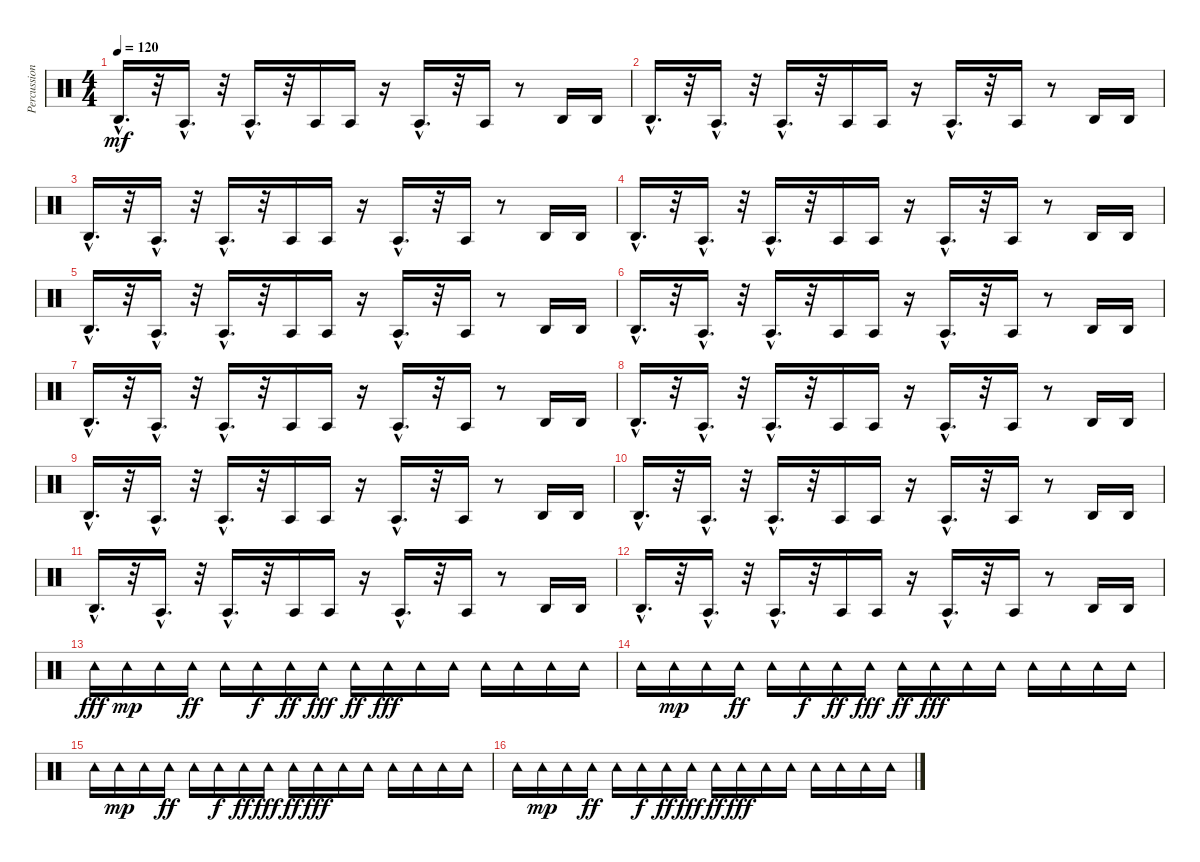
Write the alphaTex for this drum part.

\track ("Percussion" "Percussion") {instrument percussion}
\staff {score}
\articulation defaults
\ts (4 4)
\tempo 120
\clef neutral
\ks c "Agogo high (hit)"{hac}.16{d dy mf}
r.32 "Agogo tow (hit)"{hac}.16{d} r.32 "Agogo tow (hit)"{hac}.16{d} r.32 "Agogo tow (hit)".16 "Agogo tow (hit)".16 r.16 "Agogo tow (hit)"{hac}.16{d} r.32 "Agogo tow (hit)".16 r.8 "Agogo high (hit)".16 "Agogo high (hit)".16 |
"Agogo high (hit)"{hac}.16{d} r.32 "Agogo tow (hit)"{hac}.16{d} r.32 "Agogo tow (hit)"{hac}.16{d} r.32 "Agogo tow (hit)".16 "Agogo tow (hit)".16 r.16 "Agogo tow (hit)"{hac}.16{d} r.32 "Agogo tow (hit)".16 r.8 "Agogo high (hit)".16 "Agogo high (hit)".16 |
"Agogo high (hit)"{hac}.16{d} r.32 "Agogo tow (hit)"{hac}.16{d} r.32 "Agogo tow (hit)"{hac}.16{d} r.32 "Agogo tow (hit)".16 "Agogo tow (hit)".16 r.16 "Agogo tow (hit)"{hac}.16{d} r.32 "Agogo tow (hit)".16 r.8 "Agogo high (hit)".16 "Agogo high (hit)".16 |
"Agogo high (hit)"{hac}.16{d} r.32 "Agogo tow (hit)"{hac}.16{d} r.32 "Agogo tow (hit)"{hac}.16{d} r.32 "Agogo tow (hit)".16 "Agogo tow (hit)".16 r.16 "Agogo tow (hit)"{hac}.16{d} r.32 "Agogo tow (hit)".16 r.8 "Agogo high (hit)".16 "Agogo high (hit)".16 |
"Agogo high (hit)"{hac}.16{d} r.32 "Agogo tow (hit)"{hac}.16{d} r.32 "Agogo tow (hit)"{hac}.16{d} r.32 "Agogo tow (hit)".16 "Agogo tow (hit)".16 r.16 "Agogo tow (hit)"{hac}.16{d} r.32 "Agogo tow (hit)".16 r.8 "Agogo high (hit)".16 "Agogo high (hit)".16 |
"Agogo high (hit)"{hac}.16{d} r.32 "Agogo tow (hit)"{hac}.16{d} r.32 "Agogo tow (hit)"{hac}.16{d} r.32 "Agogo tow (hit)".16 "Agogo tow (hit)".16 r.16 "Agogo tow (hit)"{hac}.16{d} r.32 "Agogo tow (hit)".16 r.8 "Agogo high (hit)".16 "Agogo high (hit)".16 |
"Agogo high (hit)"{hac}.16{d} r.32 "Agogo tow (hit)"{hac}.16{d} r.32 "Agogo tow (hit)"{hac}.16{d} r.32 "Agogo tow (hit)".16 "Agogo tow (hit)".16 r.16 "Agogo tow (hit)"{hac}.16{d} r.32 "Agogo tow (hit)".16 r.8 "Agogo high (hit)".16 "Agogo high (hit)".16 |
"Agogo high (hit)"{hac}.16{d} r.32 "Agogo tow (hit)"{hac}.16{d} r.32 "Agogo tow (hit)"{hac}.16{d} r.32 "Agogo tow (hit)".16 "Agogo tow (hit)".16 r.16 "Agogo tow (hit)"{hac}.16{d} r.32 "Agogo tow (hit)".16 r.8 "Agogo high (hit)".16 "Agogo high (hit)".16 |
"Agogo high (hit)"{hac}.16{d} r.32 "Agogo tow (hit)"{hac}.16{d} r.32 "Agogo tow (hit)"{hac}.16{d} r.32 "Agogo tow (hit)".16 "Agogo tow (hit)".16 r.16 "Agogo tow (hit)"{hac}.16{d} r.32 "Agogo tow (hit)".16 r.8 "Agogo high (hit)".16 "Agogo high (hit)".16 |
"Agogo high (hit)"{hac}.16{d} r.32 "Agogo tow (hit)"{hac}.16{d} r.32 "Agogo tow (hit)"{hac}.16{d} r.32 "Agogo tow (hit)".16 "Agogo tow (hit)".16 r.16 "Agogo tow (hit)"{hac}.16{d} r.32 "Agogo tow (hit)".16 r.8 "Agogo high (hit)".16 "Agogo high (hit)".16 |
"Agogo high (hit)"{hac}.16{d} r.32 "Agogo tow (hit)"{hac}.16{d} r.32 "Agogo tow (hit)"{hac}.16{d} r.32 "Agogo tow (hit)".16 "Agogo tow (hit)".16 r.16 "Agogo tow (hit)"{hac}.16{d} r.32 "Agogo tow (hit)".16 r.8 "Agogo high (hit)".16 "Agogo high (hit)".16 |
"Agogo high (hit)"{hac}.16{d} r.32 "Agogo tow (hit)"{hac}.16{d} r.32 "Agogo tow (hit)"{hac}.16{d} r.32 "Agogo tow (hit)".16 "Agogo tow (hit)".16 r.16 "Agogo tow (hit)"{hac}.16{d} r.32 "Agogo tow (hit)".16 r.8 "Agogo high (hit)".16 "Agogo high (hit)".16 |
"Tambourine (hit)".16{dy fff} "Tambourine (hit)".16{dy mp} "Tambourine (hit)".16 "Tambourine (hit)".16{dy ff} "Tambourine (hit)".16 "Tambourine (hit)".16{dy f} "Tambourine (hit)".16{dy ff} "Tambourine (hit)".16{dy fff} "Tambourine (hit)".16{dy ff} "Tambourine (hit)".16{dy fff} "Tambourine (hit)".16 "Tambourine (hit)".16 "Tambourine (hit)".16 "Tambourine (hit)".16 "Tambourine (hit)".16 "Tambourine (hit)".16 |
"Tambourine (hit)".16 "Tambourine (hit)".16{dy mp} "Tambourine (hit)".16 "Tambourine (hit)".16{dy ff} "Tambourine (hit)".16 "Tambourine (hit)".16{dy f} "Tambourine (hit)".16{dy ff} "Tambourine (hit)".16{dy fff} "Tambourine (hit)".16{dy ff} "Tambourine (hit)".16{dy fff} "Tambourine (hit)".16 "Tambourine (hit)".16 "Tambourine (hit)".16 "Tambourine (hit)".16 "Tambourine (hit)".16 "Tambourine (hit)".16 |
"Tambourine (hit)".16 "Tambourine (hit)".16{dy mp} "Tambourine (hit)".16 "Tambourine (hit)".16{dy ff} "Tambourine (hit)".16 "Tambourine (hit)".16{dy f} "Tambourine (hit)".16{dy ff} "Tambourine (hit)".16{dy fff} "Tambourine (hit)".16{dy ff} "Tambourine (hit)".16{dy fff} "Tambourine (hit)".16 "Tambourine (hit)".16 "Tambourine (hit)".16 "Tambourine (hit)".16 "Tambourine (hit)".16 "Tambourine (hit)".16 |
"Tambourine (hit)".16 "Tambourine (hit)".16{dy mp} "Tambourine (hit)".16 "Tambourine (hit)".16{dy ff} "Tambourine (hit)".16 "Tambourine (hit)".16{dy f} "Tambourine (hit)".16{dy ff} "Tambourine (hit)".16{dy fff} "Tambourine (hit)".16{dy ff} "Tambourine (hit)".16{dy fff} "Tambourine (hit)".16 "Tambourine (hit)".16 "Tambourine (hit)".16 "Tambourine (hit)".16 "Tambourine (hit)".16 "Tambourine (hit)".16
